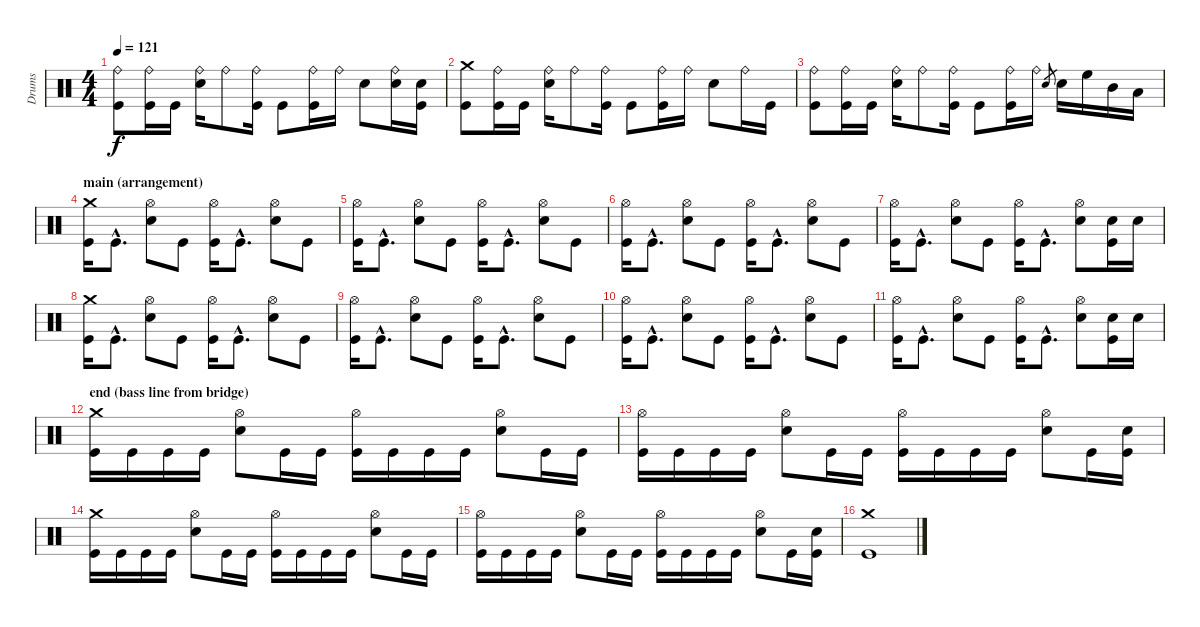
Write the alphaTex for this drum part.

\track ("Drums" "Drums") {instrument percussion}
\staff {score}
\articulation defaults
\ts (4 4)
\tempo 121
\clef neutral
\ks c
("Kick (hit)" "Ride (bell)").8{dy f} ("Kick (hit)" "Ride (bell)").16 "Kick (hit)".16 ("Electric Snare (hit)" "Ride (bell)").16 "Ride (bell)".8 ("Kick (hit)" "Ride (bell)").16 "Kick (hit)".8 ("Kick (hit)" "Ride (bell)").16 "Ride (bell)".16 "Electric Snare (hit)".8 ("Electric Snare (hit)" "Ride (bell)").16 ("Kick (hit)" "Electric Snare (hit)").16 |
("Kick (hit)" "Crash medium (hit)").8 ("Kick (hit)" "Ride (bell)").16 "Kick (hit)".16 ("Electric Snare (hit)" "Ride (bell)").16 "Ride (bell)".8 ("Kick (hit)" "Ride (bell)").16 "Kick (hit)".8 ("Kick (hit)" "Ride (bell)").16 "Ride (bell)".16 "Electric Snare (hit)".8 "Ride (bell)".16 "Kick (hit)".16 |
("Kick (hit)" "Ride (bell)").8 ("Kick (hit)" "Ride (bell)").16 "Kick (hit)".16 ("Electric Snare (hit)" "Ride (bell)").16 "Ride (bell)".8 ("Kick (hit)" "Ride (bell)").16 "Kick (hit)".8 ("Kick (hit)" "Ride (bell)").16 "Ride (bell)".16 "Electric Snare (hit)".8{gr} "Electric Snare (hit)".16 "High Floor Tom (hit)".16 "Mid Tom (hit)".16 "Low Tom (hit)".16 |
\section ("" "main (arrangement)")
("Kick (hit)" "Crash medium (hit)").16 "Kick (hit)"{hac}.8{d} ("Electric Snare (hit)" "Hi-Hat (open)").8 "Kick (hit)".8 ("Kick (hit)" "Hi-Hat (open)").16 "Kick (hit)"{hac}.8{d} ("Electric Snare (hit)" "Hi-Hat (open)").8 "Kick (hit)".8 |
("Kick (hit)" "Hi-Hat (open)").16 "Kick (hit)"{hac}.8{d} ("Electric Snare (hit)" "Hi-Hat (open)").8 "Kick (hit)".8 ("Kick (hit)" "Hi-Hat (open)").16 "Kick (hit)"{hac}.8{d} ("Electric Snare (hit)" "Hi-Hat (open)").8 "Kick (hit)".8 |
("Kick (hit)" "Hi-Hat (open)").16 "Kick (hit)"{hac}.8{d} ("Electric Snare (hit)" "Hi-Hat (open)").8 "Kick (hit)".8 ("Kick (hit)" "Hi-Hat (open)").16 "Kick (hit)"{hac}.8{d} ("Electric Snare (hit)" "Hi-Hat (open)").8 "Kick (hit)".8 |
("Kick (hit)" "Hi-Hat (open)").16 "Kick (hit)"{hac}.8{d} ("Electric Snare (hit)" "Hi-Hat (open)").8 "Kick (hit)".8 ("Kick (hit)" "Hi-Hat (open)").16 "Kick (hit)"{hac}.8{d} ("Electric Snare (hit)" "Hi-Hat (open)").8 ("Kick (hit)" "Electric Snare (hit)").16 "Electric Snare (hit)".16 |
("Kick (hit)" "Crash medium (hit)").16 "Kick (hit)"{hac}.8{d} ("Electric Snare (hit)" "Hi-Hat (open)").8 "Kick (hit)".8 ("Kick (hit)" "Hi-Hat (open)").16 "Kick (hit)"{hac}.8{d} ("Electric Snare (hit)" "Hi-Hat (open)").8 "Kick (hit)".8 |
("Kick (hit)" "Hi-Hat (open)").16 "Kick (hit)"{hac}.8{d} ("Electric Snare (hit)" "Hi-Hat (open)").8 "Kick (hit)".8 ("Kick (hit)" "Hi-Hat (open)").16 "Kick (hit)"{hac}.8{d} ("Electric Snare (hit)" "Hi-Hat (open)").8 "Kick (hit)".8 |
("Kick (hit)" "Hi-Hat (open)").16 "Kick (hit)"{hac}.8{d} ("Electric Snare (hit)" "Hi-Hat (open)").8 "Kick (hit)".8 ("Kick (hit)" "Hi-Hat (open)").16 "Kick (hit)"{hac}.8{d} ("Electric Snare (hit)" "Hi-Hat (open)").8 "Kick (hit)".8 |
("Kick (hit)" "Hi-Hat (open)").16 "Kick (hit)"{hac}.8{d} ("Electric Snare (hit)" "Hi-Hat (open)").8 "Kick (hit)".8 ("Kick (hit)" "Hi-Hat (open)").16 "Kick (hit)"{hac}.8{d} ("Electric Snare (hit)" "Hi-Hat (open)").8 ("Kick (hit)" "Electric Snare (hit)").16 "Electric Snare (hit)".16 |
\section ("" "end (bass line from bridge)")
("Kick (hit)" "Crash medium (hit)").16 "Kick (hit)".16 "Kick (hit)".16 "Kick (hit)".16 ("Electric Snare (hit)" "Hi-Hat (open)").8 "Kick (hit)".16 "Kick (hit)".16 ("Kick (hit)" "Hi-Hat (open)").16 "Kick (hit)".16 "Kick (hit)".16 "Kick (hit)".16 ("Electric Snare (hit)" "Hi-Hat (open)").8 "Kick (hit)".16 "Kick (hit)".16 |
("Kick (hit)" "Hi-Hat (open)").16 "Kick (hit)".16 "Kick (hit)".16 "Kick (hit)".16 ("Electric Snare (hit)" "Hi-Hat (open)").8 "Kick (hit)".16 "Kick (hit)".16 ("Kick (hit)" "Hi-Hat (open)").16 "Kick (hit)".16 "Kick (hit)".16 "Kick (hit)".16 ("Electric Snare (hit)" "Hi-Hat (open)").8 "Kick (hit)".16 ("Kick (hit)" "Electric Snare (hit)").16 |
("Kick (hit)" "Crash medium (hit)").16 "Kick (hit)".16 "Kick (hit)".16 "Kick (hit)".16 ("Electric Snare (hit)" "Hi-Hat (open)").8 "Kick (hit)".16 "Kick (hit)".16 ("Kick (hit)" "Hi-Hat (open)").16 "Kick (hit)".16 "Kick (hit)".16 "Kick (hit)".16 ("Electric Snare (hit)" "Hi-Hat (open)").8 "Kick (hit)".16 "Kick (hit)".16 |
("Kick (hit)" "Hi-Hat (open)").16 "Kick (hit)".16 "Kick (hit)".16 "Kick (hit)".16 ("Electric Snare (hit)" "Hi-Hat (open)").8 "Kick (hit)".16 "Kick (hit)".16 ("Kick (hit)" "Hi-Hat (open)").16 "Kick (hit)".16 "Kick (hit)".16 "Kick (hit)".16 ("Electric Snare (hit)" "Hi-Hat (open)").8 "Kick (hit)".16 ("Kick (hit)" "Electric Snare (hit)").16 |
("Kick (hit)" "Crash medium (hit)").1
